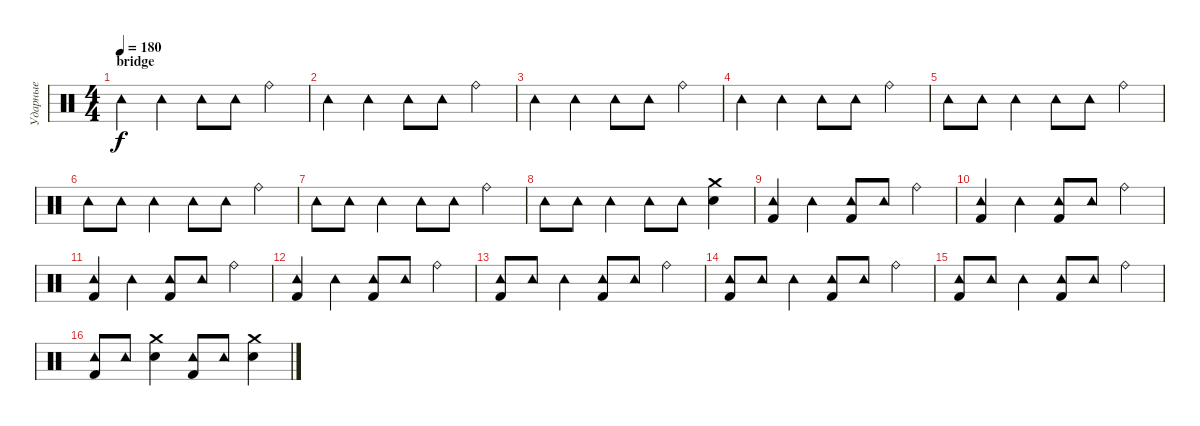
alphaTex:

\track ("Ударные" "Ударные") {instrument percussion}
\staff {score}
\articulation defaults
\ts (4 4)
\section ("" "bridge")
\tempo 180
\clef neutral
\ks c "Tambourine (hit)".4{dy f volume 16} "Tambourine (hit)".4 "Tambourine (hit)".8 "Tambourine (hit)".8 "Ride (bell)".4
|
"Tambourine (hit)".4 "Tambourine (hit)".4 "Tambourine (hit)".8 "Tambourine (hit)".8 "Ride (bell)".4 |
"Tambourine (hit)".4 "Tambourine (hit)".4 "Tambourine (hit)".8 "Tambourine (hit)".8 "Ride (bell)".4 |
"Tambourine (hit)".4 "Tambourine (hit)".4 "Tambourine (hit)".8 "Tambourine (hit)".8 "Ride (bell)".4 |
"Tambourine (hit)".8 "Tambourine (hit)".8 "Tambourine (hit)".4 "Tambourine (hit)".8 "Tambourine (hit)".8 "Ride (bell)".4 |
"Tambourine (hit)".8 "Tambourine (hit)".8 "Tambourine (hit)".4 "Tambourine (hit)".8 "Tambourine (hit)".8 "Ride (bell)".4 |
"Tambourine (hit)".8 "Tambourine (hit)".8 "Tambourine (hit)".4 "Tambourine (hit)".8 "Tambourine (hit)".8 "Ride (bell)".4 |
"Tambourine (hit)".8 "Tambourine (hit)".8 "Tambourine (hit)".4 "Tambourine (hit)".8 "Tambourine (hit)".8 ("Snare (hit) 2" "Crash medium (hit)").4 |
("Tambourine (hit)" "Kick (hit) 2").4 "Tambourine (hit)".4 ("Tambourine (hit)" "Kick (hit) 2").8 "Tambourine (hit)".8 "Ride (bell)".4 |
("Tambourine (hit)" "Kick (hit) 2").4 "Tambourine (hit)".4 ("Tambourine (hit)" "Kick (hit) 2").8 "Tambourine (hit)".8 "Ride (bell)".4 |
("Tambourine (hit)" "Kick (hit) 2").4 "Tambourine (hit)".4 ("Tambourine (hit)" "Kick (hit) 2").8 "Tambourine (hit)".8 "Ride (bell)".4 |
("Tambourine (hit)" "Kick (hit) 2").4 "Tambourine (hit)".4 ("Tambourine (hit)" "Kick (hit) 2").8 "Tambourine (hit)".8 "Ride (bell)".4 |
("Tambourine (hit)" "Kick (hit) 2").8 "Tambourine (hit)".8 "Tambourine (hit)".4 ("Tambourine (hit)" "Kick (hit) 2").8 "Tambourine (hit)".8 "Ride (bell)".4 |
("Tambourine (hit)" "Kick (hit) 2").8 "Tambourine (hit)".8 "Tambourine (hit)".4 ("Tambourine (hit)" "Kick (hit) 2").8 "Tambourine (hit)".8 "Ride (bell)".4 |
("Tambourine (hit)" "Kick (hit) 2").8 "Tambourine (hit)".8 "Tambourine (hit)".4 ("Tambourine (hit)" "Kick (hit) 2").8 "Tambourine (hit)".8 "Ride (bell)".4 |
("Tambourine (hit)" "Kick (hit) 2").8 "Tambourine (hit)".8 ("Crash medium (hit)" "Snare (hit) 2").4 ("Tambourine (hit)" "Kick (hit) 2").8 "Tambourine (hit)".8 ("Crash medium (hit)" "Snare (hit) 2").4
